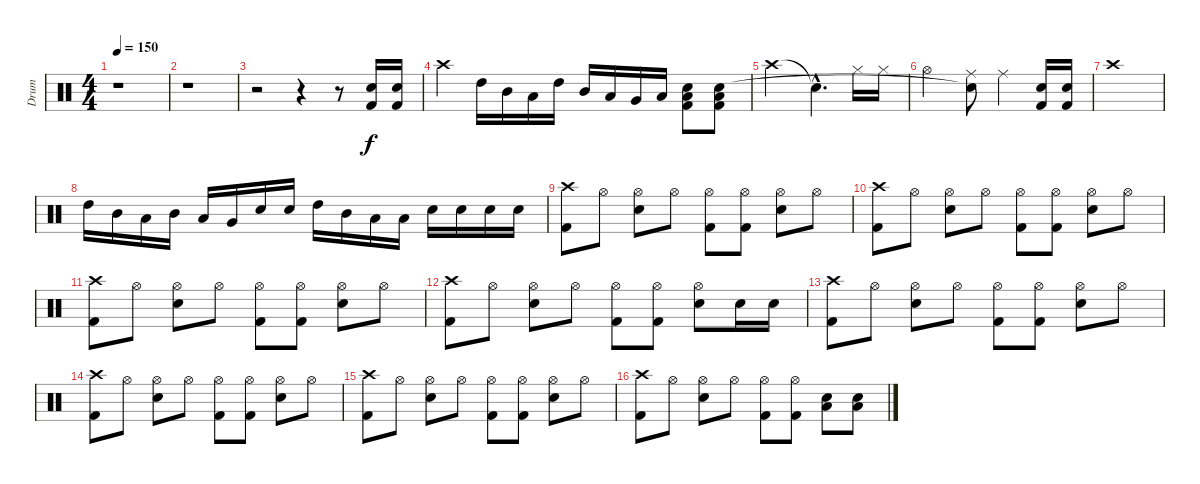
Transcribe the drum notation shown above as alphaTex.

\track ("Drum" "Drum") {instrument percussion}
\staff {score}
\articulation defaults
\ts (4 4)
\tempo 150
\clef neutral
\ks c
r.1{dy f} |
r.1 |
r.2 r.4 r.8 ("Electric Snare (hit)" "Kick (hit) 2").16 ("Electric Snare (hit)" "Kick (hit) 2").16 |
"Crash high (hit)".4 "High Tom (hit)".16 "Mid Tom (hit)".16 "Low Tom (hit)".16 "High Tom (hit)".16{volume 10} "Mid Tom (hit)".16{volume 10} "Low Tom (hit)".16{volume 11} "Very Low Tom (hit)".16{volume 12} "Low Floor Tom (hit)".16{volume 13} ("Low Floor Tom (hit)" "Electric Snare (hit)" "Kick (hit) 2").8{volume 16} ("Low Floor Tom (hit)" "Electric Snare (hit)" "Kick (hit) 2").8{volume 16} |
"Crash high (hit)".2 "Snare (hit)"{hac t}.4{d} "Hi-Hat (closed)".16 "Hi-Hat (closed)".16 |
"Hi-Hat (open)".2 ("Ride (middle)" "Snare (hit)"{t}).8 "Ride (middle)".4 ("Electric Snare (hit)" "Kick (hit) 2").16 ("Electric Snare (hit)" "Kick (hit) 2").16 |
"Crash high (hit)".1 |
"High Tom (hit)".16 "Mid Tom (hit)".16 "Low Tom (hit)".16 "Mid Tom (hit)".16 "Low Tom (hit)".16 "Very Low Tom (hit)".16 "Electric Snare (hit)".16 "Electric Snare (hit)".16 "High Tom (hit)".16 "Mid Tom (hit)".16 "Low Tom (hit)".16 "Low Floor Tom (hit)".16 "Electric Snare (hit)".16{volume 10} "Electric Snare (hit)".16{volume 11} "Electric Snare (hit)".16{volume 12} "Electric Snare (hit)".16{volume 15} |
("Crash high (hit)" "Kick (hit) 2").8 "Hi-Hat (open)".8 ("Hi-Hat (open)" "Electric Snare (hit)").8 "Hi-Hat (open)".8 ("Hi-Hat (open)" "Kick (hit) 2").8 ("Hi-Hat (open)" "Kick (hit) 2").8 ("Hi-Hat (open)" "Electric Snare (hit)").8 "Hi-Hat (open)".8 |
("Crash high (hit)" "Kick (hit) 2").8 "Hi-Hat (open)".8 ("Hi-Hat (open)" "Electric Snare (hit)").8 "Hi-Hat (open)".8 ("Hi-Hat (open)" "Kick (hit) 2").8 ("Hi-Hat (open)" "Kick (hit) 2").8 ("Hi-Hat (open)" "Electric Snare (hit)").8 "Hi-Hat (open)".8 |
("Crash high (hit)" "Kick (hit) 2").8 "Hi-Hat (open)".8 ("Hi-Hat (open)" "Electric Snare (hit)").8 "Hi-Hat (open)".8 ("Hi-Hat (open)" "Kick (hit) 2").8 ("Hi-Hat (open)" "Kick (hit) 2").8 ("Hi-Hat (open)" "Electric Snare (hit)").8 "Hi-Hat (open)".8 |
("Crash high (hit)" "Kick (hit) 2").8 "Hi-Hat (open)".8 ("Hi-Hat (open)" "Electric Snare (hit)").8 "Hi-Hat (open)".8 ("Hi-Hat (open)" "Kick (hit) 2").8 ("Hi-Hat (open)" "Kick (hit) 2").8 ("Hi-Hat (open)" "Electric Snare (hit)").8 "Electric Snare (hit)".16 "Electric Snare (hit)".16 |
("Crash high (hit)" "Kick (hit) 2").8 "Hi-Hat (open)".8 ("Hi-Hat (open)" "Electric Snare (hit)").8 "Hi-Hat (open)".8 ("Hi-Hat (open)" "Kick (hit) 2").8 ("Hi-Hat (open)" "Kick (hit) 2").8 ("Hi-Hat (open)" "Electric Snare (hit)").8 "Hi-Hat (open)".8 |
("Crash high (hit)" "Kick (hit) 2").8 "Hi-Hat (open)".8 ("Hi-Hat (open)" "Electric Snare (hit)").8 "Hi-Hat (open)".8 ("Hi-Hat (open)" "Kick (hit) 2").8 ("Hi-Hat (open)" "Kick (hit) 2").8 ("Hi-Hat (open)" "Electric Snare (hit)").8 "Hi-Hat (open)".8 |
("Crash high (hit)" "Kick (hit) 2").8 "Hi-Hat (open)".8 ("Hi-Hat (open)" "Electric Snare (hit)").8 "Hi-Hat (open)".8 ("Hi-Hat (open)" "Kick (hit) 2").8 ("Hi-Hat (open)" "Kick (hit) 2").8 ("Hi-Hat (open)" "Electric Snare (hit)").8 "Hi-Hat (open)".8 |
("Crash high (hit)" "Kick (hit) 2").8 "Hi-Hat (open)".8 ("Hi-Hat (open)" "Electric Snare (hit)").8 "Hi-Hat (open)".8 ("Hi-Hat (open)" "Kick (hit) 2").8 ("Hi-Hat (open)" "Kick (hit) 2").8 ("Low Floor Tom (hit)" "Electric Snare (hit)").8 ("Low Floor Tom (hit)" "Electric Snare (hit)").8
